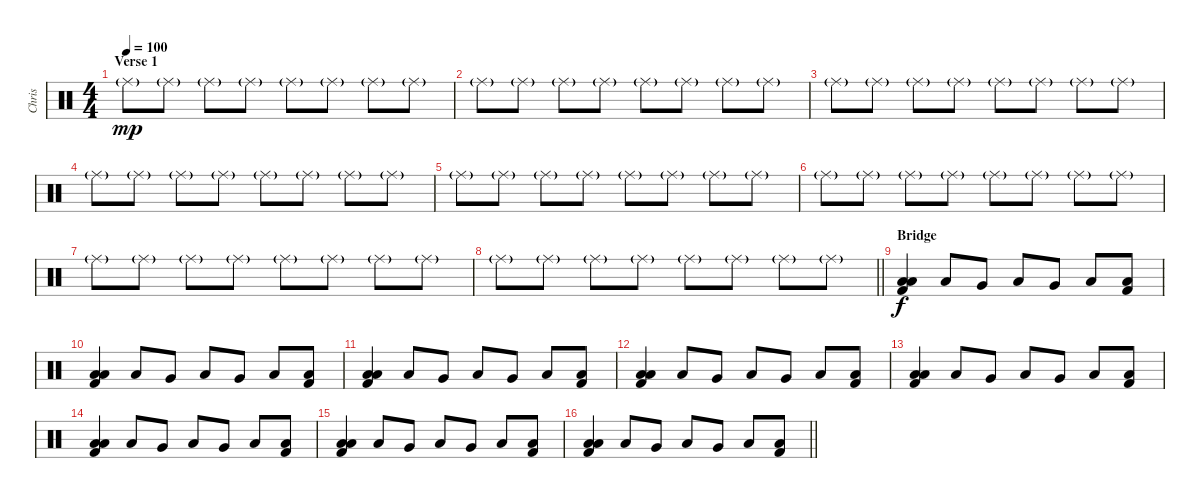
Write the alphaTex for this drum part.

\track ("Chris" "Chris") {instrument percussion}
\staff {score}
\articulation defaults
\ts (4 4)
\section ("" "Verse 1")
\tempo 100
\clef neutral
\ks c "Ride (middle)"{g}.8{dy mp} "Ride (middle)"{g}.8 "Ride (middle)"{g}.8 "Ride (middle)"{g}.8 "Ride (middle)"{g}.8 "Ride (middle)"{g}.8 "Ride (middle)"{g}.8 "Ride (middle)"{g}.8
|
"Ride (middle)"{g}.8 "Ride (middle)"{g}.8 "Ride (middle)"{g}.8 "Ride (middle)"{g}.8 "Ride (middle)"{g}.8 "Ride (middle)"{g}.8 "Ride (middle)"{g}.8 "Ride (middle)"{g}.8 |
"Ride (middle)"{g}.8 "Ride (middle)"{g}.8 "Ride (middle)"{g}.8 "Ride (middle)"{g}.8 "Ride (middle)"{g}.8 "Ride (middle)"{g}.8 "Ride (middle)"{g}.8 "Ride (middle)"{g}.8 |
"Ride (middle)"{g}.8 "Ride (middle)"{g}.8 "Ride (middle)"{g}.8 "Ride (middle)"{g}.8 "Ride (middle)"{g}.8 "Ride (middle)"{g}.8 "Ride (middle)"{g}.8 "Ride (middle)"{g}.8 |
"Ride (middle)"{g}.8 "Ride (middle)"{g}.8 "Ride (middle)"{g}.8 "Ride (middle)"{g}.8 "Ride (middle)"{g}.8 "Ride (middle)"{g}.8 "Ride (middle)"{g}.8 "Ride (middle)"{g}.8 |
"Ride (middle)"{g}.8 "Ride (middle)"{g}.8 "Ride (middle)"{g}.8 "Ride (middle)"{g}.8 "Ride (middle)"{g}.8 "Ride (middle)"{g}.8 "Ride (middle)"{g}.8 "Ride (middle)"{g}.8 |
"Ride (middle)"{g}.8 "Ride (middle)"{g}.8 "Ride (middle)"{g}.8 "Ride (middle)"{g}.8 "Ride (middle)"{g}.8 "Ride (middle)"{g}.8 "Ride (middle)"{g}.8 "Ride (middle)"{g}.8 |
\barLineRight lightlight "Ride (middle)"{g}.8 "Ride (middle)"{g}.8 "Ride (middle)"{g}.8 "Ride (middle)"{g}.8 "Ride (middle)"{g}.8 "Ride (middle)"{g}.8 "Ride (middle)"{g}.8 "Ride (middle)"{g}.8
|
\section ("" "Bridge")
("Low Floor Tom (hit)" "Low Tom (hit)" "Kick (hit) 2").4{dy f volume 11} "Low Floor Tom (hit)".8 "Very Low Tom (hit)".8 "Low Tom (hit)".8 "Very Low Tom (hit)".8 "Low Floor Tom (hit)".8 ("Low Floor Tom (hit)" "Kick (hit) 2").8 |
("Low Floor Tom (hit)" "Low Tom (hit)" "Kick (hit) 2").4 "Low Floor Tom (hit)".8 "Very Low Tom (hit)".8 "Low Tom (hit)".8 "Very Low Tom (hit)".8 "Low Floor Tom (hit)".8 ("Low Floor Tom (hit)" "Kick (hit) 2").8 |
("Low Floor Tom (hit)" "Low Tom (hit)" "Kick (hit) 2").4 "Low Floor Tom (hit)".8 "Very Low Tom (hit)".8 "Low Tom (hit)".8 "Very Low Tom (hit)".8 "Low Floor Tom (hit)".8 ("Low Floor Tom (hit)" "Kick (hit) 2").8 |
("Low Floor Tom (hit)" "Low Tom (hit)" "Kick (hit) 2").4 "Low Floor Tom (hit)".8 "Very Low Tom (hit)".8 "Low Tom (hit)".8 "Very Low Tom (hit)".8 "Low Floor Tom (hit)".8 ("Low Floor Tom (hit)" "Kick (hit) 2").8 |
("Low Floor Tom (hit)" "Low Tom (hit)" "Kick (hit) 2").4 "Low Floor Tom (hit)".8 "Very Low Tom (hit)".8 "Low Tom (hit)".8 "Very Low Tom (hit)".8 "Low Floor Tom (hit)".8 ("Low Floor Tom (hit)" "Kick (hit) 2").8 |
("Low Floor Tom (hit)" "Low Tom (hit)" "Kick (hit) 2").4 "Low Floor Tom (hit)".8 "Very Low Tom (hit)".8 "Low Tom (hit)".8 "Very Low Tom (hit)".8 "Low Floor Tom (hit)".8 ("Low Floor Tom (hit)" "Kick (hit) 2").8 |
("Low Floor Tom (hit)" "Low Tom (hit)" "Kick (hit) 2").4 "Low Floor Tom (hit)".8 "Very Low Tom (hit)".8 "Low Tom (hit)".8 "Very Low Tom (hit)".8 "Low Floor Tom (hit)".8 ("Low Floor Tom (hit)" "Kick (hit) 2").8 |
\barLineRight lightlight
("Low Floor Tom (hit)" "Low Tom (hit)" "Kick (hit) 2").4 "Low Floor Tom (hit)".8 "Very Low Tom (hit)".8 "Low Tom (hit)".8 "Very Low Tom (hit)".8 "Low Floor Tom (hit)".8 ("Low Floor Tom (hit)" "Kick (hit) 2").8
